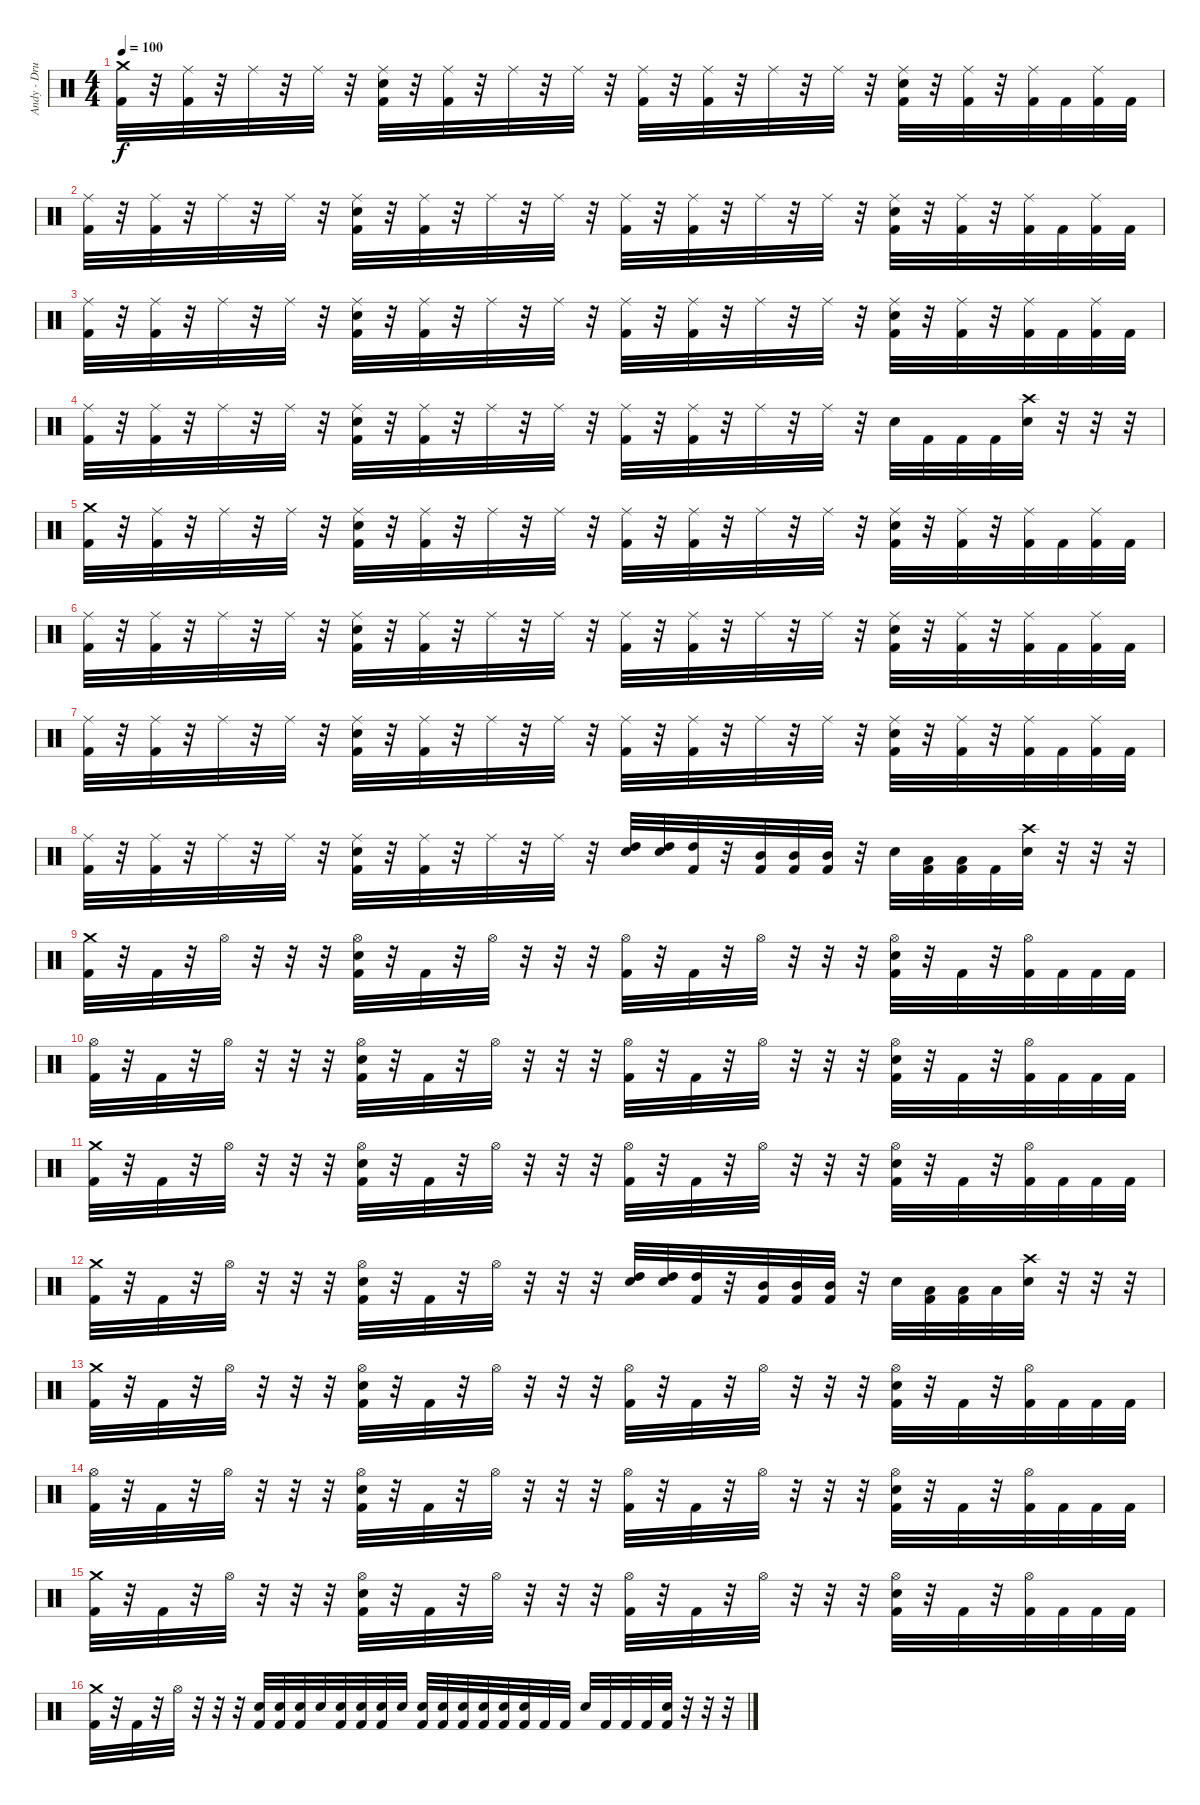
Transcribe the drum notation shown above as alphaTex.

\track ("Andy - Drums" "Andy - Dru") {instrument percussion}
\staff {score}
\articulation defaults
\ts (4 4)
\tempo 100
\clef neutral
\ks c
("Crash medium (hit)" "Kick (hit) 2").32{dy f} r.32 ("Ride (middle)" "Kick (hit) 2").32 r.32 "Ride (middle)".32 r.32 "Ride (middle)".32 r.32 ("Ride (middle)" "Electric Snare (hit)" "Kick (hit) 2").32 r.32 ("Ride (middle)" "Kick (hit) 2").32 r.32 "Ride (middle)".32 r.32 "Ride (middle)".32 r.32 ("Ride (middle)" "Kick (hit) 2").32 r.32 ("Ride (middle)" "Kick (hit) 2").32 r.32 "Ride (middle)".32 r.32 "Ride (middle)".32 r.32 ("Ride (middle)" "Electric Snare (hit)" "Kick (hit) 2").32 r.32 ("Ride (middle)" "Kick (hit) 2").32 r.32 ("Ride (middle)" "Kick (hit) 2").32 "Kick (hit) 2".32 ("Ride (middle)" "Kick (hit) 2").32 "Kick (hit) 2".32 |
("Ride (middle)" "Kick (hit) 2").32 r.32 ("Ride (middle)" "Kick (hit) 2").32 r.32 "Ride (middle)".32 r.32 "Ride (middle)".32 r.32 ("Ride (middle)" "Electric Snare (hit)" "Kick (hit) 2").32 r.32 ("Ride (middle)" "Kick (hit) 2").32 r.32 "Ride (middle)".32 r.32 "Ride (middle)".32 r.32 ("Ride (middle)" "Kick (hit) 2").32 r.32 ("Ride (middle)" "Kick (hit) 2").32 r.32 "Ride (middle)".32 r.32 "Ride (middle)".32 r.32 ("Ride (middle)" "Electric Snare (hit)" "Kick (hit) 2").32 r.32 ("Ride (middle)" "Kick (hit) 2").32 r.32 ("Ride (middle)" "Kick (hit) 2").32 "Kick (hit) 2".32 ("Ride (middle)" "Kick (hit) 2").32 "Kick (hit) 2".32 |
("Ride (middle)" "Kick (hit) 2").32 r.32 ("Ride (middle)" "Kick (hit) 2").32 r.32 "Ride (middle)".32 r.32 "Ride (middle)".32 r.32 ("Ride (middle)" "Electric Snare (hit)" "Kick (hit) 2").32 r.32 ("Ride (middle)" "Kick (hit) 2").32 r.32 "Ride (middle)".32 r.32 "Ride (middle)".32 r.32 ("Ride (middle)" "Kick (hit) 2").32 r.32 ("Ride (middle)" "Kick (hit) 2").32 r.32 "Ride (middle)".32 r.32 "Ride (middle)".32 r.32 ("Ride (middle)" "Electric Snare (hit)" "Kick (hit) 2").32 r.32 ("Ride (middle)" "Kick (hit) 2").32 r.32 ("Ride (middle)" "Kick (hit) 2").32 "Kick (hit) 2".32 ("Ride (middle)" "Kick (hit) 2").32 "Kick (hit) 2".32 |
("Ride (middle)" "Kick (hit) 2").32 r.32 ("Ride (middle)" "Kick (hit) 2").32 r.32 "Ride (middle)".32 r.32 "Ride (middle)".32 r.32 ("Ride (middle)" "Electric Snare (hit)" "Kick (hit) 2").32 r.32 ("Ride (middle)" "Kick (hit) 2").32 r.32 "Ride (middle)".32 r.32 "Ride (middle)".32 r.32 ("Ride (middle)" "Kick (hit) 2").32 r.32 ("Ride (middle)" "Kick (hit) 2").32 r.32 "Ride (middle)".32 r.32 "Ride (middle)".32 r.32 "Electric Snare (hit)".32 "Kick (hit) 2".32 "Kick (hit) 2".32 "Kick (hit) 2".32 ("Crash high (hit)" "Electric Snare (hit)").32 r.32 r.32 r.32 |
("Crash medium (hit)" "Kick (hit) 2").32 r.32 ("Ride (middle)" "Kick (hit) 2").32 r.32 "Ride (middle)".32 r.32 "Ride (middle)".32 r.32 ("Ride (middle)" "Electric Snare (hit)" "Kick (hit) 2").32 r.32 ("Ride (middle)" "Kick (hit) 2").32 r.32 "Ride (middle)".32 r.32 "Ride (middle)".32 r.32 ("Ride (middle)" "Kick (hit) 2").32 r.32 ("Ride (middle)" "Kick (hit) 2").32 r.32 "Ride (middle)".32 r.32 "Ride (middle)".32 r.32 ("Ride (middle)" "Electric Snare (hit)" "Kick (hit) 2").32 r.32 ("Ride (middle)" "Kick (hit) 2").32 r.32 ("Ride (middle)" "Kick (hit) 2").32 "Kick (hit) 2".32 ("Ride (middle)" "Kick (hit) 2").32 "Kick (hit) 2".32 |
("Ride (middle)" "Kick (hit) 2").32 r.32 ("Ride (middle)" "Kick (hit) 2").32 r.32 "Ride (middle)".32 r.32 "Ride (middle)".32 r.32 ("Ride (middle)" "Electric Snare (hit)" "Kick (hit) 2").32 r.32 ("Ride (middle)" "Kick (hit) 2").32 r.32 "Ride (middle)".32 r.32 "Ride (middle)".32 r.32 ("Ride (middle)" "Kick (hit) 2").32 r.32 ("Ride (middle)" "Kick (hit) 2").32 r.32 "Ride (middle)".32 r.32 "Ride (middle)".32 r.32 ("Ride (middle)" "Electric Snare (hit)" "Kick (hit) 2").32 r.32 ("Ride (middle)" "Kick (hit) 2").32 r.32 ("Ride (middle)" "Kick (hit) 2").32 "Kick (hit) 2".32 ("Ride (middle)" "Kick (hit) 2").32 "Kick (hit) 2".32 |
("Ride (middle)" "Kick (hit) 2").32 r.32 ("Ride (middle)" "Kick (hit) 2").32 r.32 "Ride (middle)".32 r.32 "Ride (middle)".32 r.32 ("Ride (middle)" "Electric Snare (hit)" "Kick (hit) 2").32 r.32 ("Ride (middle)" "Kick (hit) 2").32 r.32 "Ride (middle)".32 r.32 "Ride (middle)".32 r.32 ("Ride (middle)" "Kick (hit) 2").32 r.32 ("Ride (middle)" "Kick (hit) 2").32 r.32 "Ride (middle)".32 r.32 "Ride (middle)".32 r.32 ("Ride (middle)" "Electric Snare (hit)" "Kick (hit) 2").32 r.32 ("Ride (middle)" "Kick (hit) 2").32 r.32 ("Ride (middle)" "Kick (hit) 2").32 "Kick (hit) 2".32 ("Ride (middle)" "Kick (hit) 2").32 "Kick (hit) 2".32 |
("Ride (middle)" "Kick (hit) 2").32 r.32 ("Ride (middle)" "Kick (hit) 2").32 r.32 "Ride (middle)".32 r.32 "Ride (middle)".32 r.32 ("Ride (middle)" "Electric Snare (hit)" "Kick (hit) 2").32 r.32 ("Ride (middle)" "Kick (hit) 2").32 r.32 "Ride (middle)".32 r.32 "Ride (middle)".32 r.32 ("High Tom (hit)" "Electric Snare (hit)").32 ("High Tom (hit)" "Electric Snare (hit)").32 ("High Tom (hit)" "Kick (hit) 2").32 r.32 ("Mid Tom (hit)" "Kick (hit) 2").32 ("Mid Tom (hit)" "Kick (hit) 2").32 ("Mid Tom (hit)" "Kick (hit) 2").32 r.32 "Electric Snare (hit)".32 ("Low Tom (hit)" "Kick (hit) 2").32 ("Low Tom (hit)" "Kick (hit) 2").32 "Kick (hit) 2".32 ("Crash high (hit)" "Electric Snare (hit)").32 r.32 r.32 r.32 |
("Crash medium (hit)" "Kick (hit) 2").32 r.32 "Kick (hit) 2".32 r.32 "Hi-Hat (open)".32 r.32 r.32 r.32 ("Hi-Hat (open)" "Electric Snare (hit)" "Kick (hit) 2").32 r.32 "Kick (hit) 2".32 r.32 "Hi-Hat (open)".32 r.32 r.32 r.32 ("Hi-Hat (open)" "Kick (hit) 2").32 r.32 "Kick (hit) 2".32 r.32 "Hi-Hat (open)".32 r.32 r.32 r.32 ("Hi-Hat (open)" "Electric Snare (hit)" "Kick (hit) 2").32 r.32 "Kick (hit) 2".32 r.32 ("Hi-Hat (open)" "Kick (hit) 2").32 "Kick (hit) 2".32 "Kick (hit) 2".32 "Kick (hit) 2".32 |
("Hi-Hat (open)" "Kick (hit) 2").32 r.32 "Kick (hit) 2".32 r.32 "Hi-Hat (open)".32 r.32 r.32 r.32 ("Hi-Hat (open)" "Electric Snare (hit)" "Kick (hit) 2").32 r.32 "Kick (hit) 2".32 r.32 "Hi-Hat (open)".32 r.32 r.32 r.32 ("Hi-Hat (open)" "Kick (hit) 2").32 r.32 "Kick (hit) 2".32 r.32 "Hi-Hat (open)".32 r.32 r.32 r.32 ("Hi-Hat (open)" "Electric Snare (hit)" "Kick (hit) 2").32 r.32 "Kick (hit) 2".32 r.32 ("Hi-Hat (open)" "Kick (hit) 2").32 "Kick (hit) 2".32 "Kick (hit) 2".32 "Kick (hit) 2".32 |
("Crash medium (hit)" "Kick (hit) 2").32 r.32 "Kick (hit) 2".32 r.32 "Hi-Hat (open)".32 r.32 r.32 r.32 ("Hi-Hat (open)" "Electric Snare (hit)" "Kick (hit) 2").32 r.32 "Kick (hit) 2".32 r.32 "Hi-Hat (open)".32 r.32 r.32 r.32 ("Hi-Hat (open)" "Kick (hit) 2").32 r.32 "Kick (hit) 2".32 r.32 "Hi-Hat (open)".32 r.32 r.32 r.32 ("Hi-Hat (open)" "Electric Snare (hit)" "Kick (hit) 2").32 r.32 "Kick (hit) 2".32 r.32 ("Hi-Hat (open)" "Kick (hit) 2").32 "Kick (hit) 2".32 "Kick (hit) 2".32 "Kick (hit) 2".32 |
("Crash medium (hit)" "Kick (hit) 2").32 r.32 "Kick (hit) 2".32 r.32 "Hi-Hat (open)".32 r.32 r.32 r.32 ("Hi-Hat (open)" "Electric Snare (hit)" "Kick (hit) 2").32 r.32 "Kick (hit) 2".32 r.32 "Hi-Hat (open)".32 r.32 r.32 r.32 ("High Tom (hit)" "Electric Snare (hit)").32 ("High Tom (hit)" "Electric Snare (hit)").32 ("High Tom (hit)" "Kick (hit) 2").32 r.32 ("Mid Tom (hit)" "Kick (hit) 2").32 ("Mid Tom (hit)" "Kick (hit) 2").32 ("Mid Tom (hit)" "Kick (hit) 2").32 r.32 "Electric Snare (hit)".32 ("Low Tom (hit)" "Kick (hit) 2").32 ("Low Tom (hit)" "Kick (hit) 2").32 "Low Tom (hit)".32 ("Crash high (hit)" "Electric Snare (hit)").32 r.32 r.32 r.32 |
("Crash medium (hit)" "Kick (hit) 2").32 r.32 "Kick (hit) 2".32 r.32 "Hi-Hat (open)".32 r.32 r.32 r.32 ("Hi-Hat (open)" "Electric Snare (hit)" "Kick (hit) 2").32 r.32 "Kick (hit) 2".32 r.32 "Hi-Hat (open)".32 r.32 r.32 r.32 ("Hi-Hat (open)" "Kick (hit) 2").32 r.32 "Kick (hit) 2".32 r.32 "Hi-Hat (open)".32 r.32 r.32 r.32 ("Hi-Hat (open)" "Electric Snare (hit)" "Kick (hit) 2").32 r.32 "Kick (hit) 2".32 r.32 ("Hi-Hat (open)" "Kick (hit) 2").32 "Kick (hit) 2".32 "Kick (hit) 2".32 "Kick (hit) 2".32 |
("Hi-Hat (open)" "Kick (hit) 2").32 r.32 "Kick (hit) 2".32 r.32 "Hi-Hat (open)".32 r.32 r.32 r.32 ("Hi-Hat (open)" "Electric Snare (hit)" "Kick (hit) 2").32 r.32 "Kick (hit) 2".32 r.32 "Hi-Hat (open)".32 r.32 r.32 r.32 ("Hi-Hat (open)" "Kick (hit) 2").32 r.32 "Kick (hit) 2".32 r.32 "Hi-Hat (open)".32 r.32 r.32 r.32 ("Hi-Hat (open)" "Electric Snare (hit)" "Kick (hit) 2").32 r.32 "Kick (hit) 2".32 r.32 ("Hi-Hat (open)" "Kick (hit) 2").32 "Kick (hit) 2".32 "Kick (hit) 2".32 "Kick (hit) 2".32 |
("Crash medium (hit)" "Kick (hit) 2").32 r.32 "Kick (hit) 2".32 r.32 "Hi-Hat (open)".32 r.32 r.32 r.32 ("Hi-Hat (open)" "Electric Snare (hit)" "Kick (hit) 2").32 r.32 "Kick (hit) 2".32 r.32 "Hi-Hat (open)".32 r.32 r.32 r.32 ("Hi-Hat (open)" "Kick (hit) 2").32 r.32 "Kick (hit) 2".32 r.32 "Hi-Hat (open)".32 r.32 r.32 r.32 ("Hi-Hat (open)" "Electric Snare (hit)" "Kick (hit) 2").32 r.32 "Kick (hit) 2".32 r.32 ("Hi-Hat (open)" "Kick (hit) 2").32 "Kick (hit) 2".32 "Kick (hit) 2".32 "Kick (hit) 2".32 |
("Crash medium (hit)" "Kick (hit) 2").32 r.32 "Kick (hit) 2".32 r.32 "Hi-Hat (open)".32 r.32 r.32 r.32 ("Electric Snare (hit)" "Kick (hit) 2").32 ("Electric Snare (hit)" "Kick (hit) 2").32 ("Electric Snare (hit)" "Kick (hit) 2").32 "Electric Snare (hit)".32 ("Electric Snare (hit)" "Kick (hit) 2").32 ("Electric Snare (hit)" "Kick (hit) 2").32 ("Electric Snare (hit)" "Kick (hit) 2").32 "Electric Snare (hit)".32 ("Electric Snare (hit)" "Kick (hit) 2").32 ("Electric Snare (hit)" "Kick (hit) 2").32 ("Electric Snare (hit)" "Kick (hit) 2").32 ("Electric Snare (hit)" "Kick (hit) 2").32 ("Electric Snare (hit)" "Kick (hit) 2").32 ("Electric Snare (hit)" "Kick (hit) 2").32 "Kick (hit) 2".32 "Kick (hit) 2".32 "Electric Snare (hit)".32 "Kick (hit) 2".32 "Kick (hit) 2".32 "Kick (hit) 2".32 ("Electric Snare (hit)" "Kick (hit) 2").32 r.32 r.32 r.32
